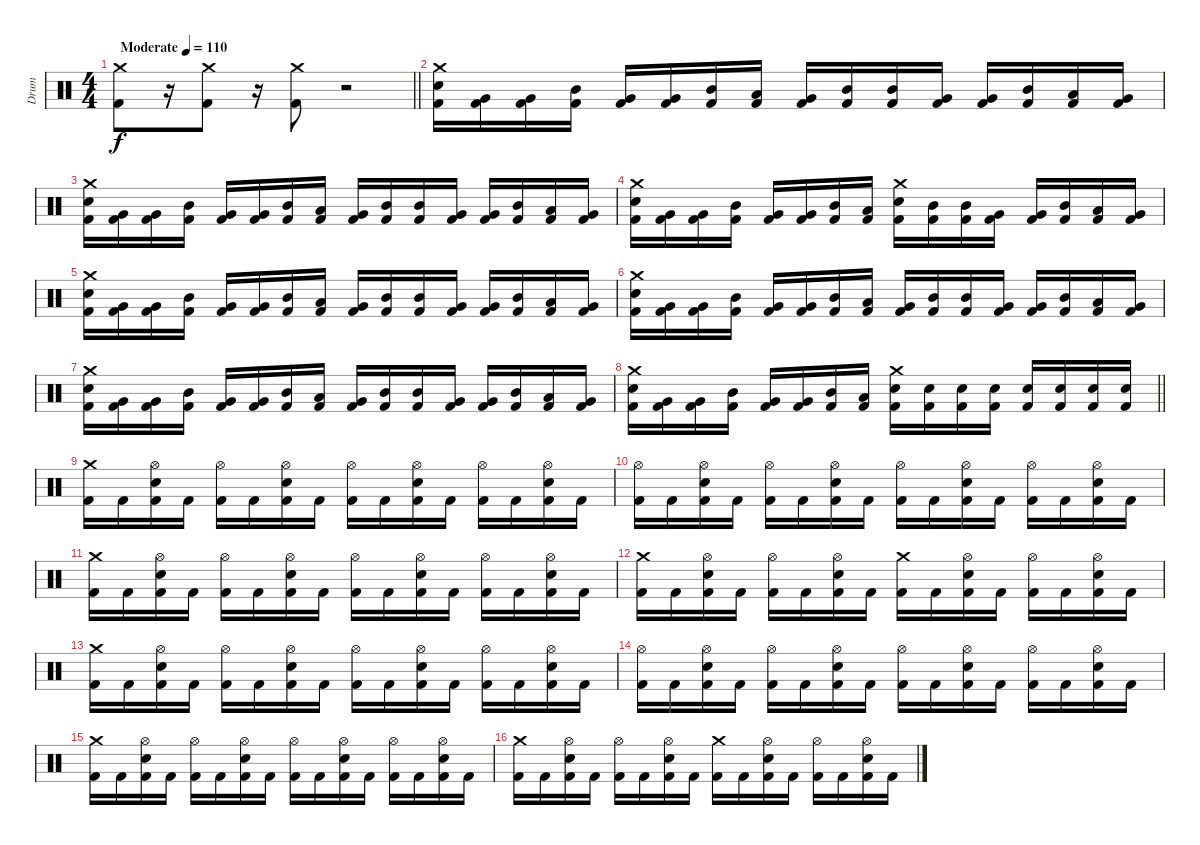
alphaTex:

\track ("Drum" "Drum") {instrument percussion}
\staff {score}
\articulation defaults
\ts (4 4)
\section ("" "")
\tempo (110 "Moderate")
\clef neutral
\barLineRight lightlight
\ks c
("Crash medium (hit)" "Kick (hit) 2").8{dy f} r.16 ("Crash medium (hit)" "Kick (hit) 2").8 r.16 ("Crash medium (hit)" "Kick (hit) 2").8 r.2 |
("Crash medium (hit)" "Electric Snare (hit)" "Kick (hit) 2").16 ("Very Low Tom (hit)" "Kick (hit) 2").16 ("Very Low Tom (hit)" "Kick (hit) 2").16 ("Mid Tom (hit)" "Kick (hit) 2").16 ("Very Low Tom (hit)" "Kick (hit) 2").16 ("Very Low Tom (hit)" "Kick (hit) 2").16 ("Mid Tom (hit)" "Kick (hit) 2").16 ("Low Tom (hit)" "Kick (hit) 2").16 ("Very Low Tom (hit)" "Kick (hit) 2").16 ("Mid Tom (hit)" "Kick (hit) 2").16 ("Mid Tom (hit)" "Kick (hit) 2").16 ("Very Low Tom (hit)" "Kick (hit) 2").16 ("Very Low Tom (hit)" "Kick (hit) 2").16 ("Mid Tom (hit)" "Kick (hit) 2").16 ("Low Tom (hit)" "Kick (hit) 2").16 ("Very Low Tom (hit)" "Kick (hit) 2").16 |
("Crash medium (hit)" "Electric Snare (hit)" "Kick (hit) 2").16 ("Very Low Tom (hit)" "Kick (hit) 2").16 ("Very Low Tom (hit)" "Kick (hit) 2").16 ("Mid Tom (hit)" "Kick (hit) 2").16 ("Very Low Tom (hit)" "Kick (hit) 2").16 ("Very Low Tom (hit)" "Kick (hit) 2").16 ("Mid Tom (hit)" "Kick (hit) 2").16 ("Low Tom (hit)" "Kick (hit) 2").16 ("Very Low Tom (hit)" "Kick (hit) 2").16 ("Mid Tom (hit)" "Kick (hit) 2").16 ("Mid Tom (hit)" "Kick (hit) 2").16 ("Very Low Tom (hit)" "Kick (hit) 2").16 ("Very Low Tom (hit)" "Kick (hit) 2").16 ("Mid Tom (hit)" "Kick (hit) 2").16 ("Low Tom (hit)" "Kick (hit) 2").16 ("Very Low Tom (hit)" "Kick (hit) 2").16 |
("Crash medium (hit)" "Electric Snare (hit)" "Kick (hit) 2").16 ("Very Low Tom (hit)" "Kick (hit) 2").16 ("Very Low Tom (hit)" "Kick (hit) 2").16 ("Mid Tom (hit)" "Kick (hit) 2").16 ("Very Low Tom (hit)" "Kick (hit) 2").16 ("Very Low Tom (hit)" "Kick (hit) 2").16 ("Mid Tom (hit)" "Kick (hit) 2").16 ("Low Tom (hit)" "Kick (hit) 2").16 ("Crash medium (hit)" "Electric Snare (hit)" "Kick (hit) 2").16 ("Mid Tom (hit)" "Kick (hit) 2").16 ("Mid Tom (hit)" "Kick (hit) 2").16 ("Very Low Tom (hit)" "Kick (hit) 2").16 ("Very Low Tom (hit)" "Kick (hit) 2").16 ("Mid Tom (hit)" "Kick (hit) 2").16 ("Low Tom (hit)" "Kick (hit) 2").16 ("Very Low Tom (hit)" "Kick (hit) 2").16 |
("Crash medium (hit)" "Electric Snare (hit)" "Kick (hit) 2").16 ("Very Low Tom (hit)" "Kick (hit) 2").16 ("Very Low Tom (hit)" "Kick (hit) 2").16 ("Mid Tom (hit)" "Kick (hit) 2").16 ("Very Low Tom (hit)" "Kick (hit) 2").16 ("Very Low Tom (hit)" "Kick (hit) 2").16 ("Mid Tom (hit)" "Kick (hit) 2").16 ("Low Tom (hit)" "Kick (hit) 2").16 ("Very Low Tom (hit)" "Kick (hit) 2").16 ("Mid Tom (hit)" "Kick (hit) 2").16 ("Mid Tom (hit)" "Kick (hit) 2").16 ("Very Low Tom (hit)" "Kick (hit) 2").16 ("Very Low Tom (hit)" "Kick (hit) 2").16 ("Mid Tom (hit)" "Kick (hit) 2").16 ("Low Tom (hit)" "Kick (hit) 2").16 ("Very Low Tom (hit)" "Kick (hit) 2").16 |
("Crash medium (hit)" "Electric Snare (hit)" "Kick (hit) 2").16 ("Very Low Tom (hit)" "Kick (hit) 2").16 ("Very Low Tom (hit)" "Kick (hit) 2").16 ("Mid Tom (hit)" "Kick (hit) 2").16 ("Very Low Tom (hit)" "Kick (hit) 2").16 ("Very Low Tom (hit)" "Kick (hit) 2").16 ("Mid Tom (hit)" "Kick (hit) 2").16 ("Low Tom (hit)" "Kick (hit) 2").16 ("Very Low Tom (hit)" "Kick (hit) 2").16 ("Mid Tom (hit)" "Kick (hit) 2").16 ("Mid Tom (hit)" "Kick (hit) 2").16 ("Very Low Tom (hit)" "Kick (hit) 2").16 ("Very Low Tom (hit)" "Kick (hit) 2").16 ("Mid Tom (hit)" "Kick (hit) 2").16 ("Low Tom (hit)" "Kick (hit) 2").16 ("Very Low Tom (hit)" "Kick (hit) 2").16 |
("Crash medium (hit)" "Electric Snare (hit)" "Kick (hit) 2").16 ("Very Low Tom (hit)" "Kick (hit) 2").16 ("Very Low Tom (hit)" "Kick (hit) 2").16 ("Mid Tom (hit)" "Kick (hit) 2").16 ("Very Low Tom (hit)" "Kick (hit) 2").16 ("Very Low Tom (hit)" "Kick (hit) 2").16 ("Mid Tom (hit)" "Kick (hit) 2").16 ("Low Tom (hit)" "Kick (hit) 2").16 ("Very Low Tom (hit)" "Kick (hit) 2").16 ("Mid Tom (hit)" "Kick (hit) 2").16 ("Mid Tom (hit)" "Kick (hit) 2").16 ("Very Low Tom (hit)" "Kick (hit) 2").16 ("Very Low Tom (hit)" "Kick (hit) 2").16 ("Mid Tom (hit)" "Kick (hit) 2").16 ("Low Tom (hit)" "Kick (hit) 2").16 ("Very Low Tom (hit)" "Kick (hit) 2").16 |
\barLineRight lightlight
("Crash medium (hit)" "Electric Snare (hit)" "Kick (hit) 2").16 ("Very Low Tom (hit)" "Kick (hit) 2").16 ("Very Low Tom (hit)" "Kick (hit) 2").16 ("Mid Tom (hit)" "Kick (hit) 2").16 ("Very Low Tom (hit)" "Kick (hit) 2").16 ("Very Low Tom (hit)" "Kick (hit) 2").16 ("Mid Tom (hit)" "Kick (hit) 2").16 ("Low Tom (hit)" "Kick (hit) 2").16 ("Crash medium (hit)" "Electric Snare (hit)" "Kick (hit) 2").16 ("Electric Snare (hit)" "Kick (hit) 2").16 ("Electric Snare (hit)" "Kick (hit) 2").16 ("Electric Snare (hit)" "Kick (hit) 2").16 ("Electric Snare (hit)" "Kick (hit) 2").16 ("Electric Snare (hit)" "Kick (hit) 2").16 ("Electric Snare (hit)" "Kick (hit) 2").16 ("Electric Snare (hit)" "Kick (hit) 2").16 |
\section ("" "")
("Crash medium (hit)" "Kick (hit) 2").16 "Kick (hit) 2".16 ("Hi-Hat (open)" "Electric Snare (hit)" "Kick (hit) 2").16 "Kick (hit) 2".16 ("Hi-Hat (open)" "Kick (hit) 2").16 "Kick (hit) 2".16 ("Hi-Hat (open)" "Electric Snare (hit)" "Kick (hit) 2").16 "Kick (hit) 2".16 ("Hi-Hat (open)" "Kick (hit) 2").16 "Kick (hit) 2".16 ("Hi-Hat (open)" "Electric Snare (hit)" "Kick (hit) 2").16 "Kick (hit) 2".16 ("Hi-Hat (open)" "Kick (hit) 2").16 "Kick (hit) 2".16 ("Hi-Hat (open)" "Electric Snare (hit)" "Kick (hit) 2").16 "Kick (hit) 2".16 |
("Hi-Hat (open)" "Kick (hit) 2").16 "Kick (hit) 2".16 ("Hi-Hat (open)" "Electric Snare (hit)" "Kick (hit) 2").16 "Kick (hit) 2".16 ("Hi-Hat (open)" "Kick (hit) 2").16 "Kick (hit) 2".16 ("Hi-Hat (open)" "Electric Snare (hit)" "Kick (hit) 2").16 "Kick (hit) 2".16 ("Hi-Hat (open)" "Kick (hit) 2").16 "Kick (hit) 2".16 ("Hi-Hat (open)" "Electric Snare (hit)" "Kick (hit) 2").16 "Kick (hit) 2".16 ("Hi-Hat (open)" "Kick (hit) 2").16 "Kick (hit) 2".16 ("Hi-Hat (open)" "Electric Snare (hit)" "Kick (hit) 2").16 "Kick (hit) 2".16 |
("Crash medium (hit)" "Kick (hit) 2").16 "Kick (hit) 2".16 ("Hi-Hat (open)" "Electric Snare (hit)" "Kick (hit) 2").16 "Kick (hit) 2".16 ("Hi-Hat (open)" "Kick (hit) 2").16 "Kick (hit) 2".16 ("Hi-Hat (open)" "Electric Snare (hit)" "Kick (hit) 2").16 "Kick (hit) 2".16 ("Hi-Hat (open)" "Kick (hit) 2").16 "Kick (hit) 2".16 ("Hi-Hat (open)" "Electric Snare (hit)" "Kick (hit) 2").16 "Kick (hit) 2".16 ("Hi-Hat (open)" "Kick (hit) 2").16 "Kick (hit) 2".16 ("Hi-Hat (open)" "Electric Snare (hit)" "Kick (hit) 2").16 "Kick (hit) 2".16 |
("Crash medium (hit)" "Kick (hit) 2").16 "Kick (hit) 2".16 ("Hi-Hat (open)" "Electric Snare (hit)" "Kick (hit) 2").16 "Kick (hit) 2".16 ("Hi-Hat (open)" "Kick (hit) 2").16 "Kick (hit) 2".16 ("Hi-Hat (open)" "Electric Snare (hit)" "Kick (hit) 2").16 "Kick (hit) 2".16 ("Crash medium (hit)" "Kick (hit) 2").16 "Kick (hit) 2".16 ("Hi-Hat (open)" "Electric Snare (hit)" "Kick (hit) 2").16 "Kick (hit) 2".16 ("Hi-Hat (open)" "Kick (hit) 2").16 "Kick (hit) 2".16 ("Hi-Hat (open)" "Electric Snare (hit)" "Kick (hit) 2").16 "Kick (hit) 2".16 |
("Crash medium (hit)" "Kick (hit) 2").16 "Kick (hit) 2".16 ("Hi-Hat (open)" "Electric Snare (hit)" "Kick (hit) 2").16 "Kick (hit) 2".16 ("Hi-Hat (open)" "Kick (hit) 2").16 "Kick (hit) 2".16 ("Hi-Hat (open)" "Electric Snare (hit)" "Kick (hit) 2").16 "Kick (hit) 2".16 ("Hi-Hat (open)" "Kick (hit) 2").16 "Kick (hit) 2".16 ("Hi-Hat (open)" "Electric Snare (hit)" "Kick (hit) 2").16 "Kick (hit) 2".16 ("Hi-Hat (open)" "Kick (hit) 2").16 "Kick (hit) 2".16 ("Hi-Hat (open)" "Electric Snare (hit)" "Kick (hit) 2").16 "Kick (hit) 2".16 |
("Hi-Hat (open)" "Kick (hit) 2").16 "Kick (hit) 2".16 ("Hi-Hat (open)" "Electric Snare (hit)" "Kick (hit) 2").16 "Kick (hit) 2".16 ("Hi-Hat (open)" "Kick (hit) 2").16 "Kick (hit) 2".16 ("Hi-Hat (open)" "Electric Snare (hit)" "Kick (hit) 2").16 "Kick (hit) 2".16 ("Hi-Hat (open)" "Kick (hit) 2").16 "Kick (hit) 2".16 ("Hi-Hat (open)" "Electric Snare (hit)" "Kick (hit) 2").16 "Kick (hit) 2".16 ("Hi-Hat (open)" "Kick (hit) 2").16 "Kick (hit) 2".16 ("Hi-Hat (open)" "Electric Snare (hit)" "Kick (hit) 2").16 "Kick (hit) 2".16 |
("Crash medium (hit)" "Kick (hit) 2").16 "Kick (hit) 2".16 ("Hi-Hat (open)" "Electric Snare (hit)" "Kick (hit) 2").16 "Kick (hit) 2".16 ("Hi-Hat (open)" "Kick (hit) 2").16 "Kick (hit) 2".16 ("Hi-Hat (open)" "Electric Snare (hit)" "Kick (hit) 2").16 "Kick (hit) 2".16 ("Hi-Hat (open)" "Kick (hit) 2").16 "Kick (hit) 2".16 ("Hi-Hat (open)" "Electric Snare (hit)" "Kick (hit) 2").16 "Kick (hit) 2".16 ("Hi-Hat (open)" "Kick (hit) 2").16 "Kick (hit) 2".16 ("Hi-Hat (open)" "Electric Snare (hit)" "Kick (hit) 2").16 "Kick (hit) 2".16 |
("Crash medium (hit)" "Kick (hit) 2").16 "Kick (hit) 2".16 ("Hi-Hat (open)" "Electric Snare (hit)" "Kick (hit) 2").16 "Kick (hit) 2".16 ("Hi-Hat (open)" "Kick (hit) 2").16 "Kick (hit) 2".16 ("Hi-Hat (open)" "Electric Snare (hit)" "Kick (hit) 2").16 "Kick (hit) 2".16 ("Crash medium (hit)" "Kick (hit) 2").16 "Kick (hit) 2".16 ("Hi-Hat (open)" "Electric Snare (hit)" "Kick (hit) 2").16 "Kick (hit) 2".16 ("Hi-Hat (open)" "Kick (hit) 2").16 "Kick (hit) 2".16 ("Hi-Hat (open)" "Electric Snare (hit)" "Kick (hit) 2").16 "Kick (hit) 2".16
